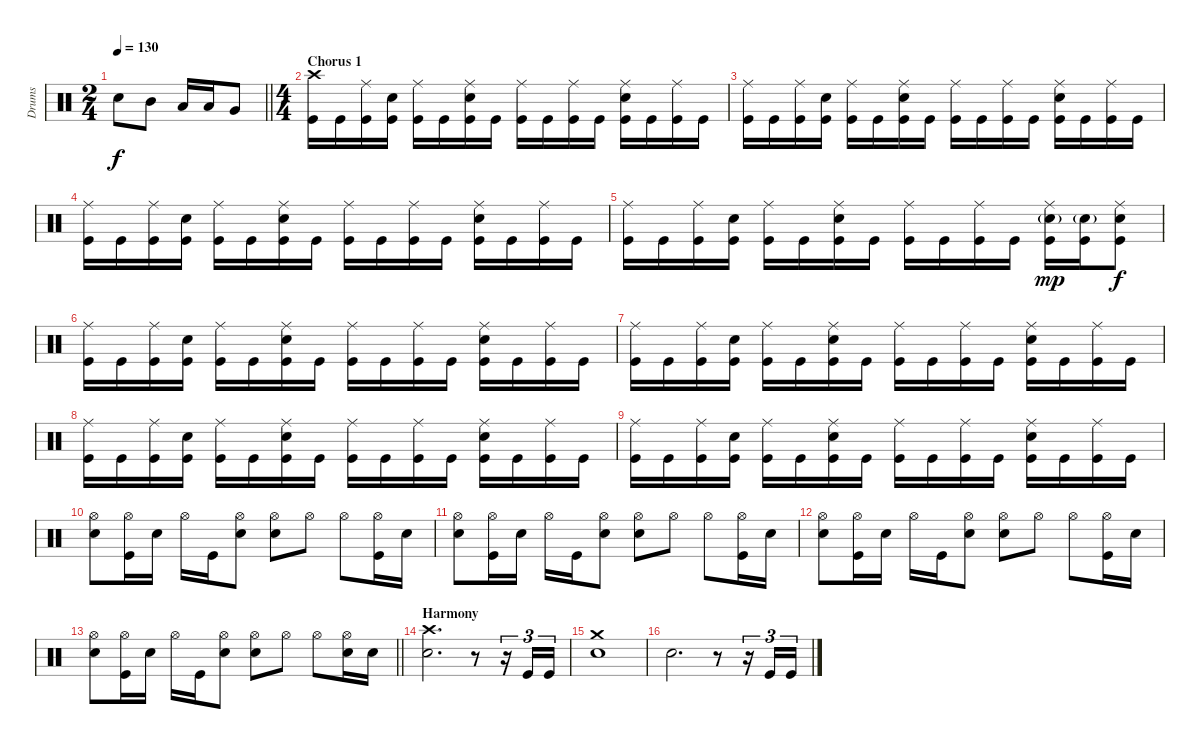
\track ("Drums" "Drums") {instrument percussion}
\staff {score}
\articulation defaults
\ts (2 4)
\tempo 130
\clef neutral
\barLineRight lightlight
\ks c "Snare (hit) 2".8{dy f} "Mid Tom (hit)".8 "Low Tom (hit)".16 "Low Tom (hit)".16 "Very Low Tom (hit)".8
|
\ts (4 4)
\section ("" "Chorus 1")
("Crash high (hit)" "Kick (hit)").16 "Kick (hit)".16 ("Ride (middle)" "Kick (hit)").16 ("Snare (hit) 2" "Kick (hit)").16 ("Ride (middle)" "Kick (hit)").16 "Kick (hit)".16 ("Ride (middle)" "Snare (hit) 2" "Kick (hit)").16 "Kick (hit)".16 ("Ride (middle)" "Kick (hit)").16 "Kick (hit)".16 ("Ride (middle)" "Kick (hit)").16 "Kick (hit)".16 ("Ride (middle)" "Snare (hit) 2" "Kick (hit)").16 "Kick (hit)".16 ("Ride (middle)" "Kick (hit)").16 "Kick (hit)".16 |
("Ride (middle)" "Kick (hit)").16 "Kick (hit)".16 ("Ride (middle)" "Kick (hit)").16 ("Snare (hit) 2" "Kick (hit)").16 ("Ride (middle)" "Kick (hit)").16 "Kick (hit)".16 ("Ride (middle)" "Snare (hit) 2" "Kick (hit)").16 "Kick (hit)".16 ("Ride (middle)" "Kick (hit)").16 "Kick (hit)".16 ("Ride (middle)" "Kick (hit)").16 "Kick (hit)".16 ("Ride (middle)" "Snare (hit) 2" "Kick (hit)").16 "Kick (hit)".16 ("Ride (middle)" "Kick (hit)").16 "Kick (hit)".16 |
("Ride (middle)" "Kick (hit)").16 "Kick (hit)".16 ("Ride (middle)" "Kick (hit)").16 ("Snare (hit) 2" "Kick (hit)").16 ("Ride (middle)" "Kick (hit)").16 "Kick (hit)".16 ("Ride (middle)" "Snare (hit) 2" "Kick (hit)").16 "Kick (hit)".16 ("Ride (middle)" "Kick (hit)").16 "Kick (hit)".16 ("Ride (middle)" "Kick (hit)").16 "Kick (hit)".16 ("Ride (middle)" "Snare (hit) 2" "Kick (hit)").16 "Kick (hit)".16 ("Ride (middle)" "Kick (hit)").16 "Kick (hit)".16 |
("Ride (middle)" "Kick (hit)").16 "Kick (hit)".16 ("Ride (middle)" "Kick (hit)").16 ("Snare (hit) 2" "Kick (hit)").16 ("Ride (middle)" "Kick (hit)").16 "Kick (hit)".16 ("Ride (middle)" "Snare (hit) 2" "Kick (hit)").16 "Kick (hit)".16 ("Ride (middle)" "Kick (hit)").16 "Kick (hit)".16 ("Ride (middle)" "Kick (hit)").16 "Kick (hit)".16 ("Ride (middle)" "Snare (hit) 2"{g} "Kick (hit)").16{dy mp} ("Snare (hit) 2"{g} "Kick (hit)").16 ("Ride (middle)" "Snare (hit) 2" "Kick (hit)").8{dy f} |
("Ride (middle)" "Kick (hit)").16 "Kick (hit)".16 ("Ride (middle)" "Kick (hit)").16 ("Snare (hit) 2" "Kick (hit)").16 ("Ride (middle)" "Kick (hit)").16 "Kick (hit)".16 ("Ride (middle)" "Snare (hit) 2" "Kick (hit)").16 "Kick (hit)".16 ("Ride (middle)" "Kick (hit)").16 "Kick (hit)".16 ("Ride (middle)" "Kick (hit)").16 "Kick (hit)".16 ("Ride (middle)" "Snare (hit) 2" "Kick (hit)").16 "Kick (hit)".16 ("Ride (middle)" "Kick (hit)").16 "Kick (hit)".16 |
("Ride (middle)" "Kick (hit)").16 "Kick (hit)".16 ("Ride (middle)" "Kick (hit)").16 ("Snare (hit) 2" "Kick (hit)").16 ("Ride (middle)" "Kick (hit)").16 "Kick (hit)".16 ("Ride (middle)" "Snare (hit) 2" "Kick (hit)").16 "Kick (hit)".16 ("Ride (middle)" "Kick (hit)").16 "Kick (hit)".16 ("Ride (middle)" "Kick (hit)").16 "Kick (hit)".16 ("Ride (middle)" "Snare (hit) 2" "Kick (hit)").16 "Kick (hit)".16 ("Ride (middle)" "Kick (hit)").16 "Kick (hit)".16 |
("Ride (middle)" "Kick (hit)").16 "Kick (hit)".16 ("Ride (middle)" "Kick (hit)").16 ("Snare (hit) 2" "Kick (hit)").16 ("Ride (middle)" "Kick (hit)").16 "Kick (hit)".16 ("Ride (middle)" "Snare (hit) 2" "Kick (hit)").16 "Kick (hit)".16 ("Ride (middle)" "Kick (hit)").16 "Kick (hit)".16 ("Ride (middle)" "Kick (hit)").16 "Kick (hit)".16 ("Ride (middle)" "Snare (hit) 2" "Kick (hit)").16 "Kick (hit)".16 ("Ride (middle)" "Kick (hit)").16 "Kick (hit)".16 |
("Ride (middle)" "Kick (hit)").16 "Kick (hit)".16 ("Ride (middle)" "Kick (hit)").16 ("Snare (hit) 2" "Kick (hit)").16 ("Ride (middle)" "Kick (hit)").16 "Kick (hit)".16 ("Ride (middle)" "Snare (hit) 2" "Kick (hit)").16 "Kick (hit)".16 ("Ride (middle)" "Kick (hit)").16 "Kick (hit)".16 ("Ride (middle)" "Kick (hit)").16 "Kick (hit)".16 ("Ride (middle)" "Snare (hit) 2" "Kick (hit)").16 "Kick (hit)".16 ("Ride (middle)" "Kick (hit)").16 "Kick (hit)".16 |
("Hi-Hat (open)" "Snare (hit) 2").8 ("Hi-Hat (open)" "Kick (hit)").16 "Snare (hit) 2".16 "Hi-Hat (open)".16 "Kick (hit)".16 ("Hi-Hat (open)" "Snare (hit) 2").8 ("Hi-Hat (open)" "Snare (hit) 2").8 "Hi-Hat (open)".8 "Hi-Hat (open)".8 ("Hi-Hat (open)" "Kick (hit)").16 "Snare (hit) 2".16 |
("Hi-Hat (open)" "Snare (hit) 2").8 ("Hi-Hat (open)" "Kick (hit)").16 "Snare (hit) 2".16 "Hi-Hat (open)".16 "Kick (hit)".16 ("Hi-Hat (open)" "Snare (hit) 2").8 ("Hi-Hat (open)" "Snare (hit) 2").8 "Hi-Hat (open)".8 "Hi-Hat (open)".8 ("Hi-Hat (open)" "Kick (hit)").16 "Snare (hit) 2".16 |
("Hi-Hat (open)" "Snare (hit) 2").8 ("Hi-Hat (open)" "Kick (hit)").16 "Snare (hit) 2".16 "Hi-Hat (open)".16 "Kick (hit)".16 ("Hi-Hat (open)" "Snare (hit) 2").8 ("Hi-Hat (open)" "Snare (hit) 2").8 "Hi-Hat (open)".8 "Hi-Hat (open)".8 ("Hi-Hat (open)" "Kick (hit)").16 "Snare (hit) 2".16 |
\barLineRight lightlight
("Hi-Hat (open)" "Snare (hit) 2").8 ("Hi-Hat (open)" "Kick (hit)").16 "Snare (hit) 2".16 "Hi-Hat (open)".16 "Kick (hit)".16 ("Hi-Hat (open)" "Snare (hit) 2").8 ("Hi-Hat (open)" "Snare (hit) 2").8 "Hi-Hat (open)".8 "Hi-Hat (open)".8 ("Hi-Hat (open)" "Snare (hit) 2").16 "Snare (hit) 2".16 |
\section ("" "Harmony")
("Crash high (hit)" "Snare (hit) 2").2{d} r.8 r.16{tu (3 2)} "Kick (hit)".16{tu (3 2)} "Kick (hit)".16{tu (3 2)} |
("Crash medium (hit)" "Snare (hit) 2").1 |
"Snare (hit) 2".2{d} r.8 r.16{tu (3 2)} "Kick (hit)".16{tu (3 2)} "Kick (hit)".16{tu (3 2)}
